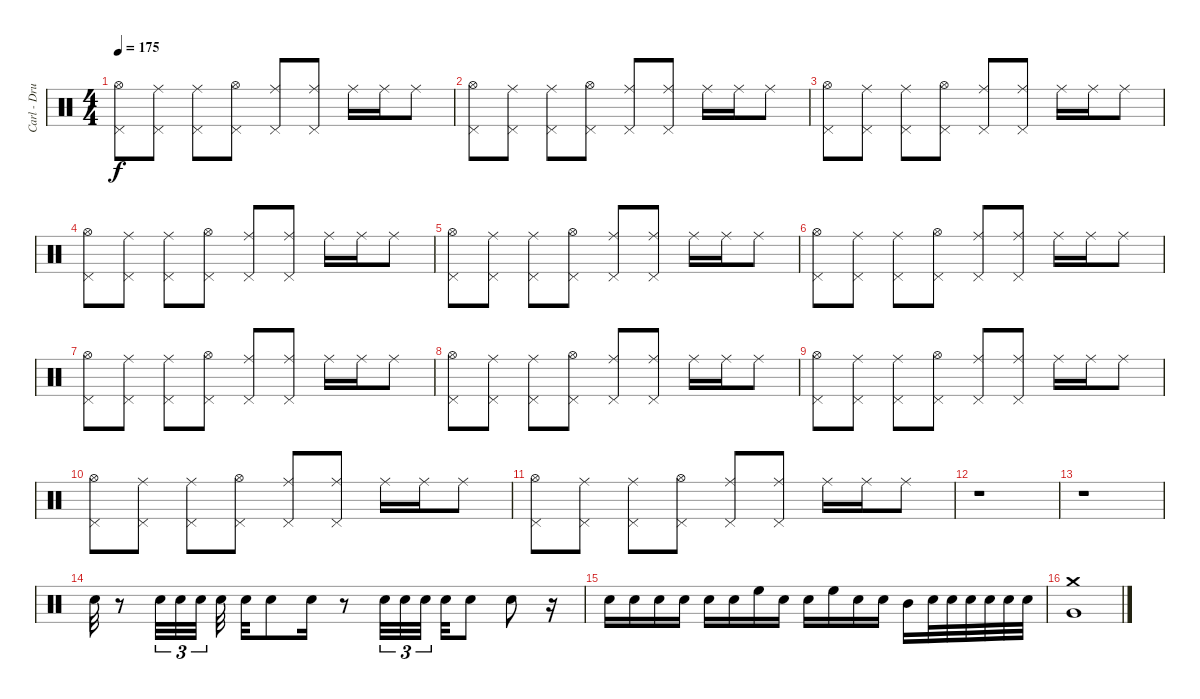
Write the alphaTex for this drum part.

\track ("Carl - Drums II" "Carl - Dru") {instrument percussion}
\staff {score}
\articulation defaults
\ts (4 4)
\tempo 175
\clef neutral
\ks c
("Pedal Hi-Hat (hit)" "Hi-Hat (open)").8{dy f} ("Pedal Hi-Hat (hit)" "Ride (middle)").8 ("Pedal Hi-Hat (hit)" "Ride (middle)").8 ("Pedal Hi-Hat (hit)" "Hi-Hat (open)").8 ("Pedal Hi-Hat (hit)" "Ride (middle)").8 ("Pedal Hi-Hat (hit)" "Ride (middle)").8 "Ride (middle)".16 "Ride (middle)".16 "Ride (middle)".8 |
("Pedal Hi-Hat (hit)" "Hi-Hat (open)").8 ("Pedal Hi-Hat (hit)" "Ride (middle)").8 ("Pedal Hi-Hat (hit)" "Ride (middle)").8 ("Pedal Hi-Hat (hit)" "Hi-Hat (open)").8 ("Pedal Hi-Hat (hit)" "Ride (middle)").8 ("Pedal Hi-Hat (hit)" "Ride (middle)").8 "Ride (middle)".16 "Ride (middle)".16 "Ride (middle)".8 |
("Pedal Hi-Hat (hit)" "Hi-Hat (open)").8 ("Pedal Hi-Hat (hit)" "Ride (middle)").8 ("Pedal Hi-Hat (hit)" "Ride (middle)").8 ("Pedal Hi-Hat (hit)" "Hi-Hat (open)").8 ("Pedal Hi-Hat (hit)" "Ride (middle)").8 ("Pedal Hi-Hat (hit)" "Ride (middle)").8 "Ride (middle)".16 "Ride (middle)".16 "Ride (middle)".8 |
("Pedal Hi-Hat (hit)" "Hi-Hat (open)").8 ("Pedal Hi-Hat (hit)" "Ride (middle)").8 ("Pedal Hi-Hat (hit)" "Ride (middle)").8 ("Pedal Hi-Hat (hit)" "Hi-Hat (open)").8 ("Pedal Hi-Hat (hit)" "Ride (middle)").8 ("Pedal Hi-Hat (hit)" "Ride (middle)").8 "Ride (middle)".16 "Ride (middle)".16 "Ride (middle)".8 |
("Pedal Hi-Hat (hit)" "Hi-Hat (open)").8 ("Pedal Hi-Hat (hit)" "Ride (middle)").8 ("Pedal Hi-Hat (hit)" "Ride (middle)").8 ("Pedal Hi-Hat (hit)" "Hi-Hat (open)").8 ("Pedal Hi-Hat (hit)" "Ride (middle)").8 ("Pedal Hi-Hat (hit)" "Ride (middle)").8 "Ride (middle)".16 "Ride (middle)".16 "Ride (middle)".8 |
("Pedal Hi-Hat (hit)" "Hi-Hat (open)").8 ("Pedal Hi-Hat (hit)" "Ride (middle)").8 ("Pedal Hi-Hat (hit)" "Ride (middle)").8 ("Pedal Hi-Hat (hit)" "Hi-Hat (open)").8 ("Pedal Hi-Hat (hit)" "Ride (middle)").8 ("Pedal Hi-Hat (hit)" "Ride (middle)").8 "Ride (middle)".16 "Ride (middle)".16 "Ride (middle)".8 |
("Pedal Hi-Hat (hit)" "Hi-Hat (open)").8 ("Pedal Hi-Hat (hit)" "Ride (middle)").8 ("Pedal Hi-Hat (hit)" "Ride (middle)").8 ("Pedal Hi-Hat (hit)" "Hi-Hat (open)").8 ("Pedal Hi-Hat (hit)" "Ride (middle)").8 ("Pedal Hi-Hat (hit)" "Ride (middle)").8 "Ride (middle)".16 "Ride (middle)".16 "Ride (middle)".8 |
("Pedal Hi-Hat (hit)" "Hi-Hat (open)").8 ("Pedal Hi-Hat (hit)" "Ride (middle)").8 ("Pedal Hi-Hat (hit)" "Ride (middle)").8 ("Pedal Hi-Hat (hit)" "Hi-Hat (open)").8 ("Pedal Hi-Hat (hit)" "Ride (middle)").8 ("Pedal Hi-Hat (hit)" "Ride (middle)").8 "Ride (middle)".16 "Ride (middle)".16 "Ride (middle)".8 |
("Pedal Hi-Hat (hit)" "Hi-Hat (open)").8 ("Pedal Hi-Hat (hit)" "Ride (middle)").8 ("Pedal Hi-Hat (hit)" "Ride (middle)").8 ("Pedal Hi-Hat (hit)" "Hi-Hat (open)").8 ("Pedal Hi-Hat (hit)" "Ride (middle)").8 ("Pedal Hi-Hat (hit)" "Ride (middle)").8 "Ride (middle)".16 "Ride (middle)".16 "Ride (middle)".8 |
("Pedal Hi-Hat (hit)" "Hi-Hat (open)").8 ("Pedal Hi-Hat (hit)" "Ride (middle)").8 ("Pedal Hi-Hat (hit)" "Ride (middle)").8 ("Pedal Hi-Hat (hit)" "Hi-Hat (open)").8 ("Pedal Hi-Hat (hit)" "Ride (middle)").8 ("Pedal Hi-Hat (hit)" "Ride (middle)").8 "Ride (middle)".16 "Ride (middle)".16 "Ride (middle)".8 |
("Pedal Hi-Hat (hit)" "Hi-Hat (open)").8 ("Pedal Hi-Hat (hit)" "Ride (middle)").8 ("Pedal Hi-Hat (hit)" "Ride (middle)").8 ("Pedal Hi-Hat (hit)" "Hi-Hat (open)").8 ("Pedal Hi-Hat (hit)" "Ride (middle)").8 ("Pedal Hi-Hat (hit)" "Ride (middle)").8 "Ride (middle)".16 "Ride (middle)".16 "Ride (middle)".8 |
r.1 |
r.1 |
"Electric Snare (hit)".32 r.8 "Electric Snare (hit)".32{tu (3 2)} "Electric Snare (hit)".32{tu (3 2)} "Electric Snare (hit)".32{tu (3 2)} "Electric Snare (hit)".32 "Electric Snare (hit)".32 "Electric Snare (hit)".8 "Electric Snare (hit)".16 r.8 "Electric Snare (hit)".32{tu (3 2)} "Electric Snare (hit)".32{tu (3 2)} "Electric Snare (hit)".32{tu (3 2)} "Electric Snare (hit)".32 "Electric Snare (hit)".8 "Electric Snare (hit)".8 r.16 |
"Electric Snare (hit)".16 "Electric Snare (hit)".16 "Electric Snare (hit)".16 "Electric Snare (hit)".16 "Electric Snare (hit)".16 "Electric Snare (hit)".16 "High Floor Tom (hit)".16 "Electric Snare (hit)".16 "Electric Snare (hit)".16 "High Floor Tom (hit)".16 "Electric Snare (hit)".16 "Electric Snare (hit)".16 "Mid Tom (hit)".16 "Electric Snare (hit)".32 "Electric Snare (hit)".32 "Electric Snare (hit)".32 "Electric Snare (hit)".32 "Electric Snare (hit)".32 "Electric Snare (hit)".32 |
("Crash medium (hit)" "Very Low Tom (hit)").1
